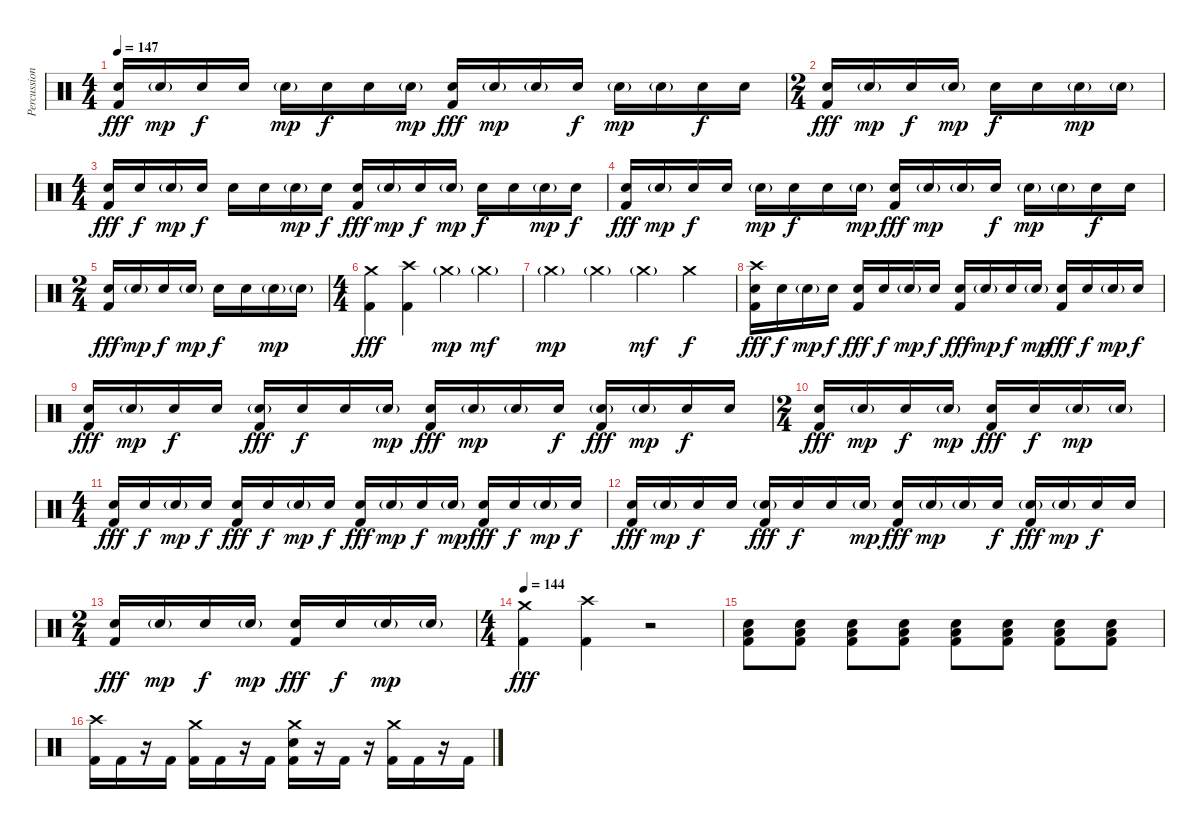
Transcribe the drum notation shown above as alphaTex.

\track ("Percussion" "Percussion") {instrument percussion}
\staff {score}
\articulation defaults
\ts (4 4)
\tempo 147
\clef neutral
\ks c
("Electric Snare (hit)" "Kick (hit) 2").16{dy fff} "Electric Snare (hit)"{g}.16{dy mp} "Electric Snare (hit)".16{dy f} "Electric Snare (hit)".16 "Electric Snare (hit)"{g}.16{dy mp} "Electric Snare (hit)".16{dy f} "Electric Snare (hit)".16 "Electric Snare (hit)"{g}.16{dy mp} ("Electric Snare (hit)" "Kick (hit) 2").16{dy fff} "Electric Snare (hit)"{g}.16{dy mp} "Electric Snare (hit)"{g}.16 "Electric Snare (hit)".16{dy f} "Electric Snare (hit)"{g}.16{dy mp} "Electric Snare (hit)"{g}.16 "Electric Snare (hit)".16{dy f} "Electric Snare (hit)".16 |
\ts (2 4)
("Electric Snare (hit)" "Kick (hit) 2").16{dy fff} "Electric Snare (hit)"{g}.16{dy mp} "Electric Snare (hit)".16{dy f} "Electric Snare (hit)"{g}.16{dy mp} "Electric Snare (hit)".16{dy f} "Electric Snare (hit)".16 "Electric Snare (hit)"{g}.16{dy mp} "Electric Snare (hit)"{g}.16 |
\ts (4 4)
("Electric Snare (hit)" "Kick (hit) 2").16{dy fff} "Electric Snare (hit)".16{dy f} "Electric Snare (hit)"{g}.16{dy mp} "Electric Snare (hit)".16{dy f} "Electric Snare (hit)".16 "Electric Snare (hit)".16 "Electric Snare (hit)"{g}.16{dy mp} "Electric Snare (hit)".16{dy f} ("Electric Snare (hit)" "Kick (hit) 2").16{dy fff} "Electric Snare (hit)"{g}.16{dy mp} "Electric Snare (hit)".16{dy f} "Electric Snare (hit)"{g}.16{dy mp} "Electric Snare (hit)".16{dy f} "Electric Snare (hit)".16 "Electric Snare (hit)"{g}.16{dy mp} "Electric Snare (hit)".16{dy f} |
("Electric Snare (hit)" "Kick (hit) 2").16{dy fff} "Electric Snare (hit)"{g}.16{dy mp} "Electric Snare (hit)".16{dy f} "Electric Snare (hit)".16 "Electric Snare (hit)"{g}.16{dy mp} "Electric Snare (hit)".16{dy f} "Electric Snare (hit)".16 "Electric Snare (hit)"{g}.16{dy mp} ("Electric Snare (hit)" "Kick (hit) 2").16{dy fff} "Electric Snare (hit)"{g}.16{dy mp} "Electric Snare (hit)"{g}.16 "Electric Snare (hit)".16{dy f} "Electric Snare (hit)"{g}.16{dy mp} "Electric Snare (hit)"{g}.16 "Electric Snare (hit)".16{dy f} "Electric Snare (hit)".16 |
\ts (2 4)
("Electric Snare (hit)" "Kick (hit) 2").16{dy fff} "Electric Snare (hit)"{g}.16{dy mp} "Electric Snare (hit)".16{dy f} "Electric Snare (hit)"{g}.16{dy mp} "Electric Snare (hit)".16{dy f} "Electric Snare (hit)".16 "Electric Snare (hit)"{g}.16{dy mp} "Electric Snare (hit)"{g}.16 |
\ts (4 4)
("Crash medium (hit)" "Kick (hit) 2").4{dy fff} ("Crash high (hit)" "Kick (hit) 2").4 "Crash medium (hit)"{g}.4{dy mp} "Crash medium (hit)"{g}.4{dy mf} |
"Crash medium (hit)"{g}.4{dy mp} "Crash medium (hit)"{g}.4 "Crash medium (hit)"{g}.4{dy mf} "Crash medium (hit)".4{dy f} |
("Crash high (hit)" "Electric Snare (hit)" "Kick (hit) 2").16{dy fff} "Electric Snare (hit)".16{dy f} "Electric Snare (hit)"{g}.16{dy mp} "Electric Snare (hit)".16{dy f} ("Electric Snare (hit)" "Kick (hit) 2").16{dy fff} "Electric Snare (hit)".16{dy f} "Electric Snare (hit)"{g}.16{dy mp} "Electric Snare (hit)".16{dy f} ("Electric Snare (hit)" "Kick (hit) 2").16{dy fff} "Electric Snare (hit)"{g}.16{dy mp} "Electric Snare (hit)".16{dy f} "Electric Snare (hit)"{g}.16{dy mp} ("Electric Snare (hit)" "Kick (hit) 2").16{dy fff} "Electric Snare (hit)".16{dy f} "Electric Snare (hit)"{g}.16{dy mp} "Electric Snare (hit)".16{dy f} |
("Electric Snare (hit)" "Kick (hit) 2").16{dy fff} "Electric Snare (hit)"{g}.16{dy mp} "Electric Snare (hit)".16{dy f} "Electric Snare (hit)".16 ("Electric Snare (hit)"{g} "Kick (hit) 2").16{dy fff} "Electric Snare (hit)".16{dy f} "Electric Snare (hit)".16 "Electric Snare (hit)"{g}.16{dy mp} ("Electric Snare (hit)" "Kick (hit) 2").16{dy fff} "Electric Snare (hit)"{g}.16{dy mp} "Electric Snare (hit)"{g}.16 "Electric Snare (hit)".16{dy f} ("Electric Snare (hit)"{g} "Kick (hit) 2").16{dy fff} "Electric Snare (hit)"{g}.16{dy mp} "Electric Snare (hit)".16{dy f} "Electric Snare (hit)".16 |
\ts (2 4)
("Electric Snare (hit)" "Kick (hit) 2").16{dy fff} "Electric Snare (hit)"{g}.16{dy mp} "Electric Snare (hit)".16{dy f} "Electric Snare (hit)"{g}.16{dy mp} ("Electric Snare (hit)" "Kick (hit) 2").16{dy fff} "Electric Snare (hit)".16{dy f} "Electric Snare (hit)"{g}.16{dy mp} "Electric Snare (hit)"{g}.16 |
\ts (4 4)
("Electric Snare (hit)" "Kick (hit) 2").16{dy fff} "Electric Snare (hit)".16{dy f} "Electric Snare (hit)"{g}.16{dy mp} "Electric Snare (hit)".16{dy f} ("Electric Snare (hit)" "Kick (hit) 2").16{dy fff} "Electric Snare (hit)".16{dy f} "Electric Snare (hit)"{g}.16{dy mp} "Electric Snare (hit)".16{dy f} ("Electric Snare (hit)" "Kick (hit) 2").16{dy fff} "Electric Snare (hit)"{g}.16{dy mp} "Electric Snare (hit)".16{dy f} "Electric Snare (hit)"{g}.16{dy mp} ("Electric Snare (hit)" "Kick (hit) 2").16{dy fff} "Electric Snare (hit)".16{dy f} "Electric Snare (hit)"{g}.16{dy mp} "Electric Snare (hit)".16{dy f} |
("Electric Snare (hit)" "Kick (hit) 2").16{dy fff} "Electric Snare (hit)"{g}.16{dy mp} "Electric Snare (hit)".16{dy f} "Electric Snare (hit)".16 ("Electric Snare (hit)"{g} "Kick (hit) 2").16{dy fff} "Electric Snare (hit)".16{dy f} "Electric Snare (hit)".16 "Electric Snare (hit)"{g}.16{dy mp} ("Electric Snare (hit)" "Kick (hit) 2").16{dy fff} "Electric Snare (hit)"{g}.16{dy mp} "Electric Snare (hit)"{g}.16 "Electric Snare (hit)".16{dy f} ("Electric Snare (hit)"{g} "Kick (hit) 2").16{dy fff} "Electric Snare (hit)"{g}.16{dy mp} "Electric Snare (hit)".16{dy f} "Electric Snare (hit)".16 |
\ts (2 4)
("Electric Snare (hit)" "Kick (hit) 2").16{dy fff} "Electric Snare (hit)"{g}.16{dy mp} "Electric Snare (hit)".16{dy f} "Electric Snare (hit)"{g}.16{dy mp} ("Electric Snare (hit)" "Kick (hit) 2").16{dy fff} "Electric Snare (hit)".16{dy f} "Electric Snare (hit)"{g}.16{dy mp} "Electric Snare (hit)"{g}.16 |
\ts (4 4)
\tempo 144
("Crash medium (hit)" "Kick (hit) 2").4{dy fff} ("Crash high (hit)" "Kick (hit) 2").4 r.2 |
("Electric Snare (hit)" "Low Floor Tom (hit)" "Kick (hit) 2").8 ("Electric Snare (hit)" "Low Floor Tom (hit)" "Kick (hit) 2").8 ("Electric Snare (hit)" "Low Floor Tom (hit)" "Kick (hit) 2").8 ("Electric Snare (hit)" "Low Floor Tom (hit)" "Kick (hit) 2").8 ("Electric Snare (hit)" "Low Floor Tom (hit)" "Kick (hit) 2").8 ("Electric Snare (hit)" "Low Floor Tom (hit)" "Kick (hit) 2").8 ("Electric Snare (hit)" "Low Floor Tom (hit)" "Kick (hit) 2").8 ("Electric Snare (hit)" "Low Floor Tom (hit)" "Kick (hit) 2").8 |
("Crash high (hit)" "Kick (hit) 2").16 "Kick (hit) 2".16 r.16 "Kick (hit) 2".16 ("Crash medium (hit)" "Kick (hit) 2").16 "Kick (hit) 2".16 r.16 "Kick (hit) 2".16 ("Crash medium (hit)" "Electric Snare (hit)" "Kick (hit) 2").16 r.16 "Kick (hit) 2".16 r.16 ("Crash medium (hit)" "Kick (hit) 2").16 "Kick (hit) 2".16 r.16 "Kick (hit) 2".16
